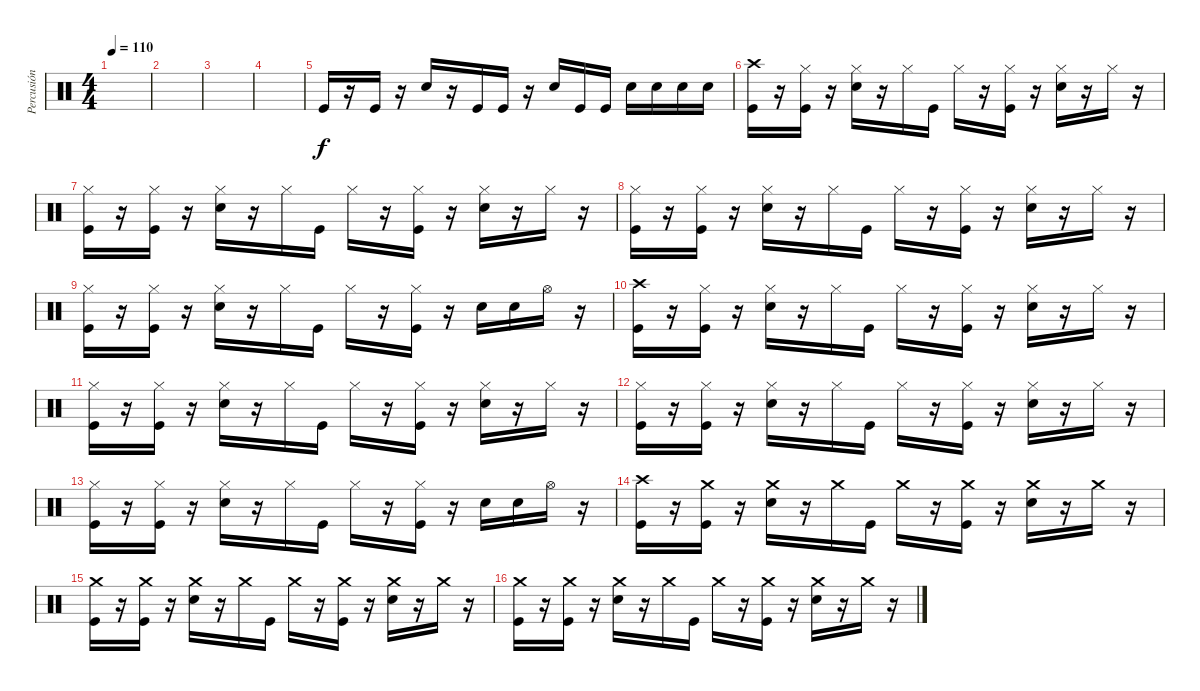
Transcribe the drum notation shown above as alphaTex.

\track ("Percusión" "Percusión") {instrument percussion}
\staff {score}
\articulation defaults
\ts (4 4)
\tempo 110
\clef neutral
\ks c
|
|
|
|
"Kick (hit)".16 r.16 "Kick (hit)".16 r.16 "Electric Snare (hit)".16 r.16 "Kick (hit)".16 "Kick (hit)".16 r.16 "Electric Snare (hit)".16 "Kick (hit)".16 "Kick (hit)".16 "Electric Snare (hit)".16 "Electric Snare (hit)".16 "Electric Snare (hit)".16 "Electric Snare (hit)".16 |
("Crash high (hit)" "Kick (hit)").16 r.16 ("Hi-Hat (closed)" "Kick (hit)").16 r.16 ("Hi-Hat (closed)" "Electric Snare (hit)").16 r.16 "Hi-Hat (closed)".16 "Kick (hit)".16 "Hi-Hat (closed)".16 r.16 ("Hi-Hat (closed)" "Kick (hit)").16 r.16 ("Hi-Hat (closed)" "Electric Snare (hit)").16 r.16 "Hi-Hat (closed)".16 r.16 |
("Hi-Hat (closed)" "Kick (hit)").16 r.16 ("Hi-Hat (closed)" "Kick (hit)").16 r.16 ("Hi-Hat (closed)" "Electric Snare (hit)").16 r.16 "Hi-Hat (closed)".16 "Kick (hit)".16 "Hi-Hat (closed)".16 r.16 ("Hi-Hat (closed)" "Kick (hit)").16 r.16 ("Hi-Hat (closed)" "Electric Snare (hit)").16 r.16 "Hi-Hat (closed)".16 r.16 |
("Hi-Hat (closed)" "Kick (hit)").16 r.16 ("Hi-Hat (closed)" "Kick (hit)").16 r.16 ("Hi-Hat (closed)" "Electric Snare (hit)").16 r.16 "Hi-Hat (closed)".16 "Kick (hit)".16 "Hi-Hat (closed)".16 r.16 ("Hi-Hat (closed)" "Kick (hit)").16 r.16 ("Hi-Hat (closed)" "Electric Snare (hit)").16 r.16 "Hi-Hat (closed)".16 r.16 |
("Hi-Hat (closed)" "Kick (hit)").16 r.16 ("Hi-Hat (closed)" "Kick (hit)").16 r.16 ("Hi-Hat (closed)" "Electric Snare (hit)").16 r.16 "Hi-Hat (closed)".16 "Kick (hit)".16 "Hi-Hat (closed)".16 r.16 ("Hi-Hat (closed)" "Kick (hit)").16 r.16 "Electric Snare (hit)".16 "Electric Snare (hit)".16 "Hi-Hat (open)".16 r.16 |
("Crash high (hit)" "Kick (hit)").16 r.16 ("Hi-Hat (closed)" "Kick (hit)").16 r.16 ("Hi-Hat (closed)" "Electric Snare (hit)").16 r.16 "Hi-Hat (closed)".16 "Kick (hit)".16 "Hi-Hat (closed)".16 r.16 ("Hi-Hat (closed)" "Kick (hit)").16 r.16 ("Hi-Hat (closed)" "Electric Snare (hit)").16 r.16 "Hi-Hat (closed)".16 r.16 |
("Hi-Hat (closed)" "Kick (hit)").16 r.16 ("Hi-Hat (closed)" "Kick (hit)").16 r.16 ("Hi-Hat (closed)" "Electric Snare (hit)").16 r.16 "Hi-Hat (closed)".16 "Kick (hit)".16 "Hi-Hat (closed)".16 r.16 ("Hi-Hat (closed)" "Kick (hit)").16 r.16 ("Hi-Hat (closed)" "Electric Snare (hit)").16 r.16 "Hi-Hat (closed)".16 r.16 |
("Hi-Hat (closed)" "Kick (hit)").16 r.16 ("Hi-Hat (closed)" "Kick (hit)").16 r.16 ("Hi-Hat (closed)" "Electric Snare (hit)").16 r.16 "Hi-Hat (closed)".16 "Kick (hit)".16 "Hi-Hat (closed)".16 r.16 ("Hi-Hat (closed)" "Kick (hit)").16 r.16 ("Hi-Hat (closed)" "Electric Snare (hit)").16 r.16 "Hi-Hat (closed)".16 r.16 |
("Hi-Hat (closed)" "Kick (hit)").16 r.16 ("Hi-Hat (closed)" "Kick (hit)").16 r.16 ("Hi-Hat (closed)" "Electric Snare (hit)").16 r.16 "Hi-Hat (closed)".16 "Kick (hit)".16 "Hi-Hat (closed)".16 r.16 ("Hi-Hat (closed)" "Kick (hit)").16 r.16 "Electric Snare (hit)".16 "Electric Snare (hit)".16 "Hi-Hat (open)".16 r.16 |
("Crash high (hit)" "Kick (hit)").16 r.16 ("Crash medium (hit)" "Kick (hit)").16 r.16 ("Crash medium (hit)" "Electric Snare (hit)").16 r.16 "Crash medium (hit)".16 "Kick (hit)".16 "Crash medium (hit)".16 r.16 ("Crash medium (hit)" "Kick (hit)").16 r.16 ("Crash medium (hit)" "Electric Snare (hit)").16 r.16 "Crash medium (hit)".16 r.16 |
("Crash medium (hit)" "Kick (hit)").16 r.16 ("Crash medium (hit)" "Kick (hit)").16 r.16 ("Crash medium (hit)" "Electric Snare (hit)").16 r.16 "Crash medium (hit)".16 "Kick (hit)".16 "Crash medium (hit)".16 r.16 ("Crash medium (hit)" "Kick (hit)").16 r.16 ("Crash medium (hit)" "Electric Snare (hit)").16 r.16 "Crash medium (hit)".16 r.16 |
("Crash medium (hit)" "Kick (hit)").16 r.16 ("Crash medium (hit)" "Kick (hit)").16 r.16 ("Crash medium (hit)" "Electric Snare (hit)").16 r.16 "Crash medium (hit)".16 "Kick (hit)".16 "Crash medium (hit)".16 r.16 ("Crash medium (hit)" "Kick (hit)").16 r.16 ("Crash medium (hit)" "Electric Snare (hit)").16 r.16 "Crash medium (hit)".16 r.16
